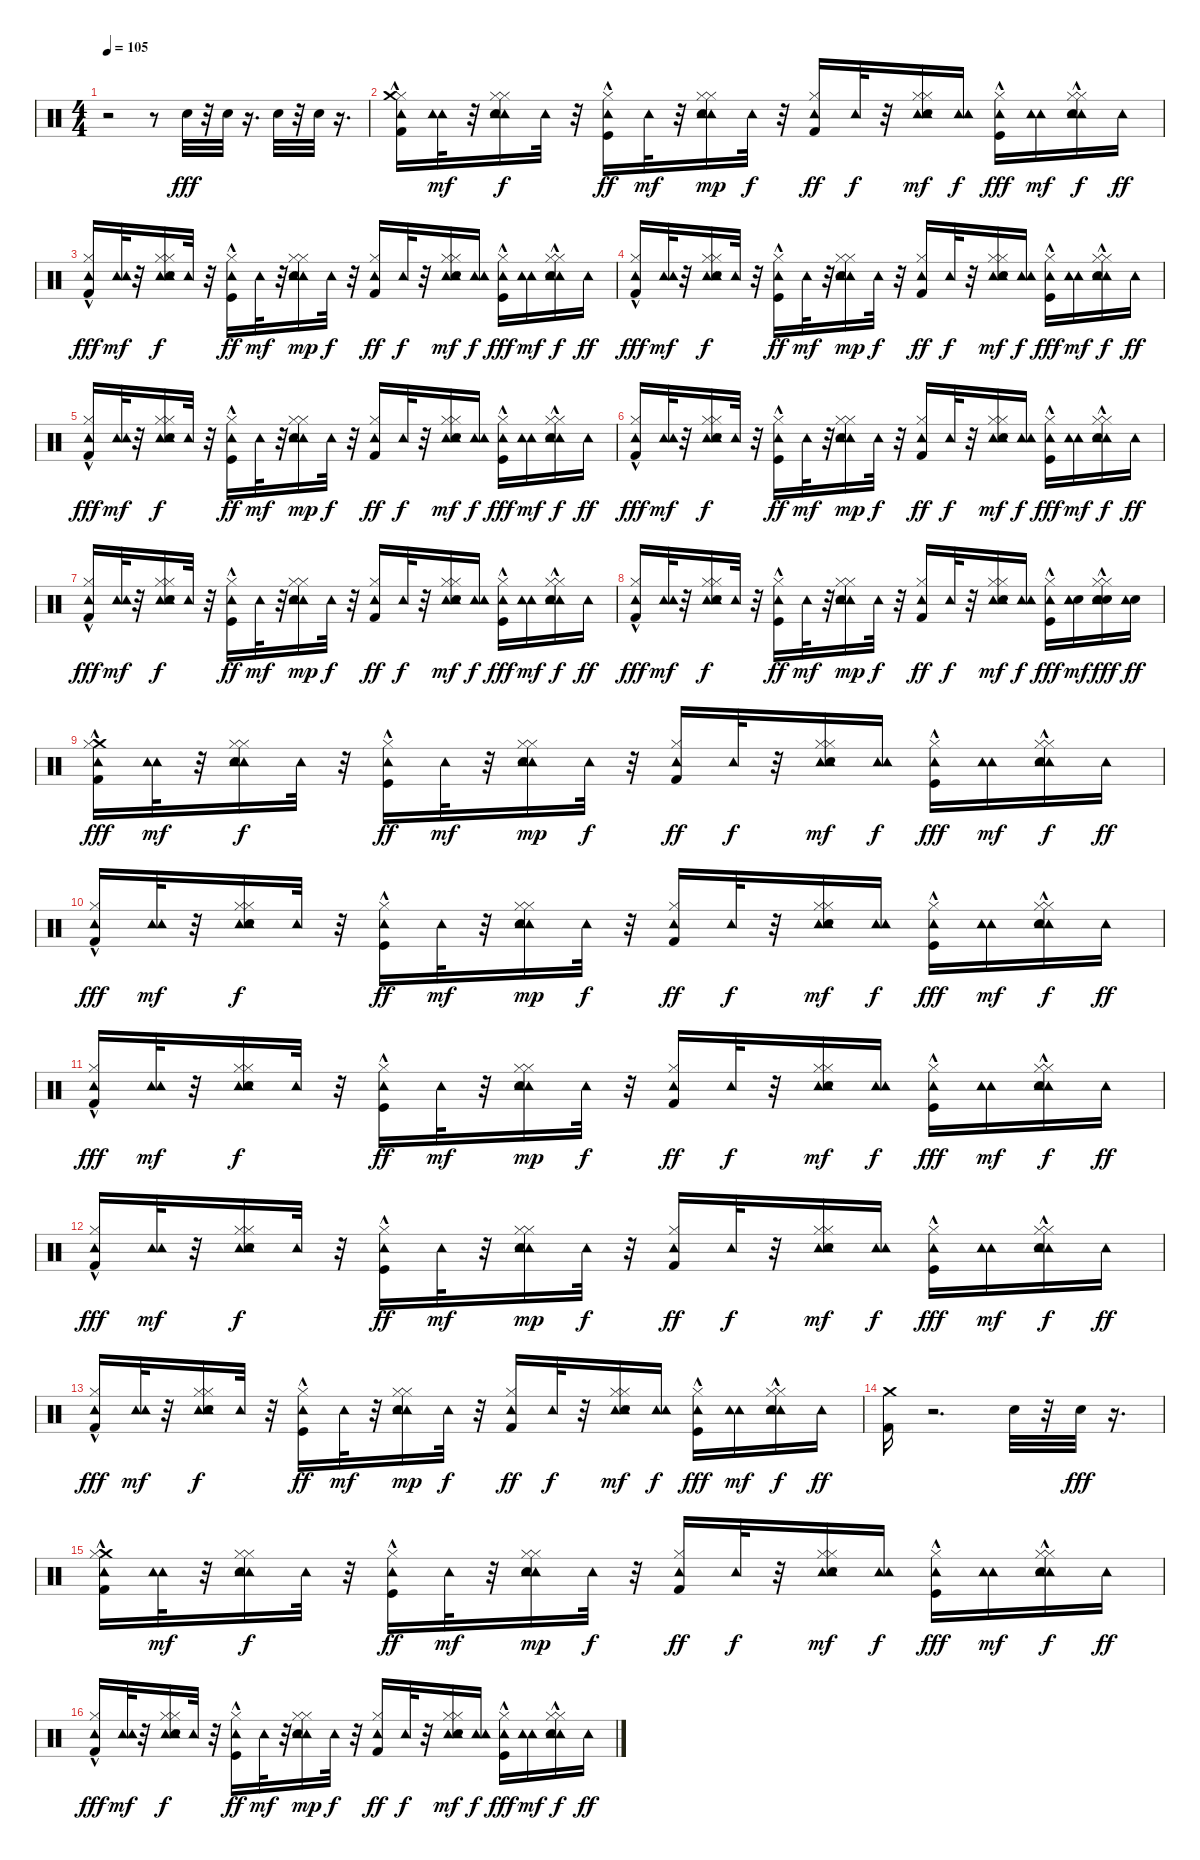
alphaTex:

\track "" {instrument percussion}
\staff {score}
\articulation defaults
\ts (4 4)
\tempo 105
\clef neutral
\ks c
r.2{dy fff} r.8 "Snare (hit) 2".32 r.32 "Snare (hit) 2".32 r.16{d} "Snare (hit) 2".32 r.32 "Snare (hit) 2".32 r.16{d} |
("Kick (hit) 2"{hac} "Hi-Hat (closed)" "Tambourine (hit)" "Crash medium (hit)").16 ("Tambourine (hit)" "Tambourine (hit)").32{dy mf} r.32 ("Hi-Hat (closed)" "Tambourine (hit)" "Hi-Hat (closed)" "Snare (hit) 2" "Tambourine (hit)" "Tambourine (hit)").16{dy f} "Tambourine (hit)".32 r.32 ("Kick (hit)"{hac} "Hi-Hat (closed)" "Tambourine (hit)").16{dy ff} "Tambourine (hit)".32{dy mf} r.32 ("Tambourine (hit)" "Hi-Hat (closed)" "Tambourine (hit)" "Hi-Hat (closed)" "Snare (hit) 2").16{dy mp} "Tambourine (hit)".32{dy f} r.32 ("Tambourine (hit)" "Hi-Hat (closed)" "Kick (hit) 2").16{dy ff} "Tambourine (hit)".32{dy f} r.32 ("Tambourine (hit)" "Hi-Hat (closed)" "Hi-Hat (closed)" "Tambourine (hit)" "Snare (hit) 2").16{dy mf} ("Tambourine (hit)" "Tambourine (hit)").16{dy f} ("Tambourine (hit)" "Kick (hit)"{hac} "Hi-Hat (closed)").16{dy fff} ("Tambourine (hit)" "Tambourine (hit)").16{dy mf} ("Hi-Hat (closed)"{hac} "Tambourine (hit)" "Hi-Hat (closed)"{hac} "Snare (hit) 2" "Tambourine (hit)").16{dy f} "Tambourine (hit)".16{dy ff} |
("Kick (hit) 2"{hac} "Hi-Hat (closed)" "Tambourine (hit)").16{dy fff} ("Tambourine (hit)" "Tambourine (hit)").32{dy mf} r.32 ("Hi-Hat (closed)" "Tambourine (hit)" "Hi-Hat (closed)" "Snare (hit) 2" "Tambourine (hit)" "Tambourine (hit)").16{dy f} "Tambourine (hit)".32 r.32 ("Kick (hit)"{hac} "Hi-Hat (closed)" "Tambourine (hit)").16{dy ff} "Tambourine (hit)".32{dy mf} r.32 ("Tambourine (hit)" "Hi-Hat (closed)" "Tambourine (hit)" "Hi-Hat (closed)" "Snare (hit) 2").16{dy mp} "Tambourine (hit)".32{dy f} r.32 ("Tambourine (hit)" "Hi-Hat (closed)" "Kick (hit) 2").16{dy ff} "Tambourine (hit)".32{dy f} r.32 ("Tambourine (hit)" "Hi-Hat (closed)" "Hi-Hat (closed)" "Tambourine (hit)" "Snare (hit) 2").16{dy mf} ("Tambourine (hit)" "Tambourine (hit)").16{dy f} ("Tambourine (hit)" "Kick (hit)"{hac} "Hi-Hat (closed)").16{dy fff} ("Tambourine (hit)" "Tambourine (hit)").16{dy mf} ("Hi-Hat (closed)"{hac} "Tambourine (hit)" "Hi-Hat (closed)"{hac} "Snare (hit) 2" "Tambourine (hit)").16{dy f} "Tambourine (hit)".16{dy ff} |
("Kick (hit) 2"{hac} "Hi-Hat (closed)" "Tambourine (hit)").16{dy fff} ("Tambourine (hit)" "Tambourine (hit)").32{dy mf} r.32 ("Hi-Hat (closed)" "Tambourine (hit)" "Hi-Hat (closed)" "Snare (hit) 2" "Tambourine (hit)" "Tambourine (hit)").16{dy f} "Tambourine (hit)".32 r.32 ("Kick (hit)"{hac} "Hi-Hat (closed)" "Tambourine (hit)").16{dy ff} "Tambourine (hit)".32{dy mf} r.32 ("Tambourine (hit)" "Hi-Hat (closed)" "Tambourine (hit)" "Hi-Hat (closed)" "Snare (hit) 2").16{dy mp} "Tambourine (hit)".32{dy f} r.32 ("Tambourine (hit)" "Hi-Hat (closed)" "Kick (hit) 2").16{dy ff} "Tambourine (hit)".32{dy f} r.32 ("Tambourine (hit)" "Hi-Hat (closed)" "Hi-Hat (closed)" "Tambourine (hit)" "Snare (hit) 2").16{dy mf} ("Tambourine (hit)" "Tambourine (hit)").16{dy f} ("Tambourine (hit)" "Kick (hit)"{hac} "Hi-Hat (closed)").16{dy fff} ("Tambourine (hit)" "Tambourine (hit)").16{dy mf} ("Hi-Hat (closed)"{hac} "Tambourine (hit)" "Hi-Hat (closed)"{hac} "Snare (hit) 2" "Tambourine (hit)").16{dy f} "Tambourine (hit)".16{dy ff} |
("Kick (hit) 2"{hac} "Hi-Hat (closed)" "Tambourine (hit)").16{dy fff} ("Tambourine (hit)" "Tambourine (hit)").32{dy mf} r.32 ("Hi-Hat (closed)" "Tambourine (hit)" "Hi-Hat (closed)" "Snare (hit) 2" "Tambourine (hit)" "Tambourine (hit)").16{dy f} "Tambourine (hit)".32 r.32 ("Kick (hit)"{hac} "Hi-Hat (closed)" "Tambourine (hit)").16{dy ff} "Tambourine (hit)".32{dy mf} r.32 ("Tambourine (hit)" "Hi-Hat (closed)" "Tambourine (hit)" "Hi-Hat (closed)" "Snare (hit) 2").16{dy mp} "Tambourine (hit)".32{dy f} r.32 ("Tambourine (hit)" "Hi-Hat (closed)" "Kick (hit) 2").16{dy ff} "Tambourine (hit)".32{dy f} r.32 ("Tambourine (hit)" "Hi-Hat (closed)" "Hi-Hat (closed)" "Tambourine (hit)" "Snare (hit) 2").16{dy mf} ("Tambourine (hit)" "Tambourine (hit)").16{dy f} ("Tambourine (hit)" "Kick (hit)"{hac} "Hi-Hat (closed)").16{dy fff} ("Tambourine (hit)" "Tambourine (hit)").16{dy mf} ("Hi-Hat (closed)"{hac} "Tambourine (hit)" "Hi-Hat (closed)"{hac} "Snare (hit) 2" "Tambourine (hit)").16{dy f} "Tambourine (hit)".16{dy ff} |
("Kick (hit) 2"{hac} "Hi-Hat (closed)" "Tambourine (hit)").16{dy fff} ("Tambourine (hit)" "Tambourine (hit)").32{dy mf} r.32 ("Hi-Hat (closed)" "Tambourine (hit)" "Hi-Hat (closed)" "Snare (hit) 2" "Tambourine (hit)" "Tambourine (hit)").16{dy f} "Tambourine (hit)".32 r.32 ("Kick (hit)"{hac} "Hi-Hat (closed)" "Tambourine (hit)").16{dy ff} "Tambourine (hit)".32{dy mf} r.32 ("Tambourine (hit)" "Hi-Hat (closed)" "Tambourine (hit)" "Hi-Hat (closed)" "Snare (hit) 2").16{dy mp} "Tambourine (hit)".32{dy f} r.32 ("Tambourine (hit)" "Hi-Hat (closed)" "Kick (hit) 2").16{dy ff} "Tambourine (hit)".32{dy f} r.32 ("Tambourine (hit)" "Hi-Hat (closed)" "Hi-Hat (closed)" "Tambourine (hit)" "Snare (hit) 2").16{dy mf} ("Tambourine (hit)" "Tambourine (hit)").16{dy f} ("Tambourine (hit)" "Kick (hit)"{hac} "Hi-Hat (closed)").16{dy fff} ("Tambourine (hit)" "Tambourine (hit)").16{dy mf} ("Hi-Hat (closed)"{hac} "Tambourine (hit)" "Hi-Hat (closed)"{hac} "Snare (hit) 2" "Tambourine (hit)").16{dy f} "Tambourine (hit)".16{dy ff} |
("Kick (hit) 2"{hac} "Hi-Hat (closed)" "Tambourine (hit)").16{dy fff} ("Tambourine (hit)" "Tambourine (hit)").32{dy mf} r.32 ("Hi-Hat (closed)" "Tambourine (hit)" "Hi-Hat (closed)" "Snare (hit) 2" "Tambourine (hit)" "Tambourine (hit)").16{dy f} "Tambourine (hit)".32 r.32 ("Kick (hit)"{hac} "Hi-Hat (closed)" "Tambourine (hit)").16{dy ff} "Tambourine (hit)".32{dy mf} r.32 ("Tambourine (hit)" "Hi-Hat (closed)" "Tambourine (hit)" "Hi-Hat (closed)" "Snare (hit) 2").16{dy mp} "Tambourine (hit)".32{dy f} r.32 ("Tambourine (hit)" "Hi-Hat (closed)" "Kick (hit) 2").16{dy ff} "Tambourine (hit)".32{dy f} r.32 ("Tambourine (hit)" "Hi-Hat (closed)" "Hi-Hat (closed)" "Tambourine (hit)" "Snare (hit) 2").16{dy mf} ("Tambourine (hit)" "Tambourine (hit)").16{dy f} ("Tambourine (hit)" "Kick (hit)"{hac} "Hi-Hat (closed)").16{dy fff} ("Tambourine (hit)" "Tambourine (hit)").16{dy mf} ("Hi-Hat (closed)"{hac} "Tambourine (hit)" "Hi-Hat (closed)"{hac} "Snare (hit) 2" "Tambourine (hit)").16{dy f} "Tambourine (hit)".16{dy ff} |
("Kick (hit) 2"{hac} "Hi-Hat (closed)" "Tambourine (hit)").16{dy fff} ("Tambourine (hit)" "Tambourine (hit)").32{dy mf} r.32 ("Hi-Hat (closed)" "Tambourine (hit)" "Hi-Hat (closed)" "Snare (hit) 2" "Tambourine (hit)" "Tambourine (hit)").16{dy f} "Tambourine (hit)".32 r.32 ("Kick (hit)"{hac} "Hi-Hat (closed)" "Tambourine (hit)").16{dy ff} "Tambourine (hit)".32{dy mf} r.32 ("Tambourine (hit)" "Hi-Hat (closed)" "Tambourine (hit)" "Hi-Hat (closed)" "Snare (hit) 2").16{dy mp} "Tambourine (hit)".32{dy f} r.32 ("Tambourine (hit)" "Hi-Hat (closed)" "Kick (hit) 2").16{dy ff} "Tambourine (hit)".32{dy f} r.32 ("Tambourine (hit)" "Hi-Hat (closed)" "Hi-Hat (closed)" "Tambourine (hit)" "Snare (hit) 2").16{dy mf} ("Tambourine (hit)" "Tambourine (hit)").16{dy f} ("Tambourine (hit)" "Kick (hit)"{hac} "Hi-Hat (closed)").16{dy fff} ("Snare (hit) 2" "Tambourine (hit)" "Tambourine (hit)").16{dy mf} ("Snare (hit) 2" "Hi-Hat (closed)"{hac} "Tambourine (hit)" "Hi-Hat (closed)"{hac} "Snare (hit) 2" "Tambourine (hit)").16{dy fff} ("Snare (hit) 2" "Tambourine (hit)").16{dy ff} |
("Crash medium (hit)" "Kick (hit) 2"{hac} "Hi-Hat (closed)" "Tambourine (hit)").16{dy fff} ("Tambourine (hit)" "Tambourine (hit)").32{dy mf} r.32 ("Hi-Hat (closed)" "Tambourine (hit)" "Hi-Hat (closed)" "Snare (hit) 2" "Tambourine (hit)" "Tambourine (hit)").16{dy f} "Tambourine (hit)".32 r.32 ("Kick (hit)"{hac} "Hi-Hat (closed)" "Tambourine (hit)").16{dy ff} "Tambourine (hit)".32{dy mf} r.32 ("Tambourine (hit)" "Hi-Hat (closed)" "Tambourine (hit)" "Hi-Hat (closed)" "Snare (hit) 2").16{dy mp} "Tambourine (hit)".32{dy f} r.32 ("Tambourine (hit)" "Hi-Hat (closed)" "Kick (hit) 2").16{dy ff} "Tambourine (hit)".32{dy f} r.32 ("Tambourine (hit)" "Hi-Hat (closed)" "Hi-Hat (closed)" "Tambourine (hit)" "Snare (hit) 2").16{dy mf} ("Tambourine (hit)" "Tambourine (hit)").16{dy f} ("Tambourine (hit)" "Kick (hit)"{hac} "Hi-Hat (closed)").16{dy fff} ("Tambourine (hit)" "Tambourine (hit)").16{dy mf} ("Hi-Hat (closed)"{hac} "Tambourine (hit)" "Hi-Hat (closed)"{hac} "Snare (hit) 2" "Tambourine (hit)").16{dy f} "Tambourine (hit)".16{dy ff} |
("Kick (hit) 2"{hac} "Hi-Hat (closed)" "Tambourine (hit)").16{dy fff} ("Tambourine (hit)" "Tambourine (hit)").32{dy mf} r.32 ("Hi-Hat (closed)" "Tambourine (hit)" "Hi-Hat (closed)" "Snare (hit) 2" "Tambourine (hit)" "Tambourine (hit)").16{dy f} "Tambourine (hit)".32 r.32 ("Kick (hit)"{hac} "Hi-Hat (closed)" "Tambourine (hit)").16{dy ff} "Tambourine (hit)".32{dy mf} r.32 ("Tambourine (hit)" "Hi-Hat (closed)" "Tambourine (hit)" "Hi-Hat (closed)" "Snare (hit) 2").16{dy mp} "Tambourine (hit)".32{dy f} r.32 ("Tambourine (hit)" "Hi-Hat (closed)" "Kick (hit) 2").16{dy ff} "Tambourine (hit)".32{dy f} r.32 ("Tambourine (hit)" "Hi-Hat (closed)" "Hi-Hat (closed)" "Tambourine (hit)" "Snare (hit) 2").16{dy mf} ("Tambourine (hit)" "Tambourine (hit)").16{dy f} ("Tambourine (hit)" "Kick (hit)"{hac} "Hi-Hat (closed)").16{dy fff} ("Tambourine (hit)" "Tambourine (hit)").16{dy mf} ("Hi-Hat (closed)"{hac} "Tambourine (hit)" "Hi-Hat (closed)"{hac} "Snare (hit) 2" "Tambourine (hit)").16{dy f} "Tambourine (hit)".16{dy ff} |
("Kick (hit) 2"{hac} "Hi-Hat (closed)" "Tambourine (hit)").16{dy fff} ("Tambourine (hit)" "Tambourine (hit)").32{dy mf} r.32 ("Hi-Hat (closed)" "Tambourine (hit)" "Hi-Hat (closed)" "Snare (hit) 2" "Tambourine (hit)" "Tambourine (hit)").16{dy f} "Tambourine (hit)".32 r.32 ("Kick (hit)"{hac} "Hi-Hat (closed)" "Tambourine (hit)").16{dy ff} "Tambourine (hit)".32{dy mf} r.32 ("Tambourine (hit)" "Hi-Hat (closed)" "Tambourine (hit)" "Hi-Hat (closed)" "Snare (hit) 2").16{dy mp} "Tambourine (hit)".32{dy f} r.32 ("Tambourine (hit)" "Hi-Hat (closed)" "Kick (hit) 2").16{dy ff} "Tambourine (hit)".32{dy f} r.32 ("Tambourine (hit)" "Hi-Hat (closed)" "Hi-Hat (closed)" "Tambourine (hit)" "Snare (hit) 2").16{dy mf} ("Tambourine (hit)" "Tambourine (hit)").16{dy f} ("Tambourine (hit)" "Kick (hit)"{hac} "Hi-Hat (closed)").16{dy fff} ("Tambourine (hit)" "Tambourine (hit)").16{dy mf} ("Hi-Hat (closed)"{hac} "Tambourine (hit)" "Hi-Hat (closed)"{hac} "Snare (hit) 2" "Tambourine (hit)").16{dy f} "Tambourine (hit)".16{dy ff} |
("Kick (hit) 2"{hac} "Hi-Hat (closed)" "Tambourine (hit)").16{dy fff} ("Tambourine (hit)" "Tambourine (hit)").32{dy mf} r.32 ("Hi-Hat (closed)" "Tambourine (hit)" "Hi-Hat (closed)" "Snare (hit) 2" "Tambourine (hit)" "Tambourine (hit)").16{dy f} "Tambourine (hit)".32 r.32 ("Kick (hit)"{hac} "Hi-Hat (closed)" "Tambourine (hit)").16{dy ff} "Tambourine (hit)".32{dy mf} r.32 ("Tambourine (hit)" "Hi-Hat (closed)" "Tambourine (hit)" "Hi-Hat (closed)" "Snare (hit) 2").16{dy mp} "Tambourine (hit)".32{dy f} r.32 ("Tambourine (hit)" "Hi-Hat (closed)" "Kick (hit) 2").16{dy ff} "Tambourine (hit)".32{dy f} r.32 ("Tambourine (hit)" "Hi-Hat (closed)" "Hi-Hat (closed)" "Tambourine (hit)" "Snare (hit) 2").16{dy mf} ("Tambourine (hit)" "Tambourine (hit)").16{dy f} ("Tambourine (hit)" "Kick (hit)"{hac} "Hi-Hat (closed)").16{dy fff} ("Tambourine (hit)" "Tambourine (hit)").16{dy mf} ("Hi-Hat (closed)"{hac} "Tambourine (hit)" "Hi-Hat (closed)"{hac} "Snare (hit) 2" "Tambourine (hit)").16{dy f} "Tambourine (hit)".16{dy ff} |
("Kick (hit) 2"{hac} "Hi-Hat (closed)" "Tambourine (hit)").16{dy fff} ("Tambourine (hit)" "Tambourine (hit)").32{dy mf} r.32 ("Hi-Hat (closed)" "Tambourine (hit)" "Hi-Hat (closed)" "Snare (hit) 2" "Tambourine (hit)" "Tambourine (hit)").16{dy f} "Tambourine (hit)".32 r.32 ("Kick (hit)"{hac} "Hi-Hat (closed)" "Tambourine (hit)").16{dy ff} "Tambourine (hit)".32{dy mf} r.32 ("Tambourine (hit)" "Hi-Hat (closed)" "Tambourine (hit)" "Hi-Hat (closed)" "Snare (hit) 2").16{dy mp} "Tambourine (hit)".32{dy f} r.32 ("Tambourine (hit)" "Hi-Hat (closed)" "Kick (hit) 2").16{dy ff} "Tambourine (hit)".32{dy f} r.32 ("Tambourine (hit)" "Hi-Hat (closed)" "Hi-Hat (closed)" "Tambourine (hit)" "Snare (hit) 2").16{dy mf} ("Tambourine (hit)" "Tambourine (hit)").16{dy f} ("Tambourine (hit)" "Kick (hit)"{hac} "Hi-Hat (closed)").16{dy fff} ("Tambourine (hit)" "Tambourine (hit)").16{dy mf} ("Hi-Hat (closed)"{hac} "Tambourine (hit)" "Hi-Hat (closed)"{hac} "Snare (hit) 2" "Tambourine (hit)").16{dy f} "Tambourine (hit)".16{dy ff} |
("Kick (hit) 2" "Crash medium (hit)").16 r.2{d} "Snare (hit) 2".32 r.32 "Snare (hit) 2".32{dy fff} r.16{d} |
("Crash medium (hit)" "Kick (hit) 2"{hac} "Hi-Hat (closed)" "Tambourine (hit)").16 ("Tambourine (hit)" "Tambourine (hit)").32{dy mf} r.32 ("Hi-Hat (closed)" "Tambourine (hit)" "Hi-Hat (closed)" "Snare (hit) 2" "Tambourine (hit)" "Tambourine (hit)").16{dy f} "Tambourine (hit)".32 r.32 ("Kick (hit)"{hac} "Hi-Hat (closed)" "Tambourine (hit)").16{dy ff} "Tambourine (hit)".32{dy mf} r.32 ("Tambourine (hit)" "Hi-Hat (closed)" "Tambourine (hit)" "Hi-Hat (closed)" "Snare (hit) 2").16{dy mp} "Tambourine (hit)".32{dy f} r.32 ("Tambourine (hit)" "Hi-Hat (closed)" "Kick (hit) 2").16{dy ff} "Tambourine (hit)".32{dy f} r.32 ("Tambourine (hit)" "Hi-Hat (closed)" "Hi-Hat (closed)" "Tambourine (hit)" "Snare (hit) 2").16{dy mf} ("Tambourine (hit)" "Tambourine (hit)").16{dy f} ("Tambourine (hit)" "Kick (hit)"{hac} "Hi-Hat (closed)").16{dy fff} ("Tambourine (hit)" "Tambourine (hit)").16{dy mf} ("Hi-Hat (closed)"{hac} "Tambourine (hit)" "Hi-Hat (closed)"{hac} "Snare (hit) 2" "Tambourine (hit)").16{dy f} "Tambourine (hit)".16{dy ff} |
("Kick (hit) 2"{hac} "Hi-Hat (closed)" "Tambourine (hit)").16{dy fff} ("Tambourine (hit)" "Tambourine (hit)").32{dy mf} r.32 ("Hi-Hat (closed)" "Tambourine (hit)" "Hi-Hat (closed)" "Snare (hit) 2" "Tambourine (hit)" "Tambourine (hit)").16{dy f} "Tambourine (hit)".32 r.32 ("Kick (hit)"{hac} "Hi-Hat (closed)" "Tambourine (hit)").16{dy ff} "Tambourine (hit)".32{dy mf} r.32 ("Tambourine (hit)" "Hi-Hat (closed)" "Tambourine (hit)" "Hi-Hat (closed)" "Snare (hit) 2").16{dy mp} "Tambourine (hit)".32{dy f} r.32 ("Tambourine (hit)" "Hi-Hat (closed)" "Kick (hit) 2").16{dy ff} "Tambourine (hit)".32{dy f} r.32 ("Tambourine (hit)" "Hi-Hat (closed)" "Hi-Hat (closed)" "Tambourine (hit)" "Snare (hit) 2").16{dy mf} ("Tambourine (hit)" "Tambourine (hit)").16{dy f} ("Tambourine (hit)" "Kick (hit)"{hac} "Hi-Hat (closed)").16{dy fff} ("Tambourine (hit)" "Tambourine (hit)").16{dy mf} ("Hi-Hat (closed)"{hac} "Tambourine (hit)" "Hi-Hat (closed)"{hac} "Snare (hit) 2" "Tambourine (hit)").16{dy f} "Tambourine (hit)".16{dy ff}
